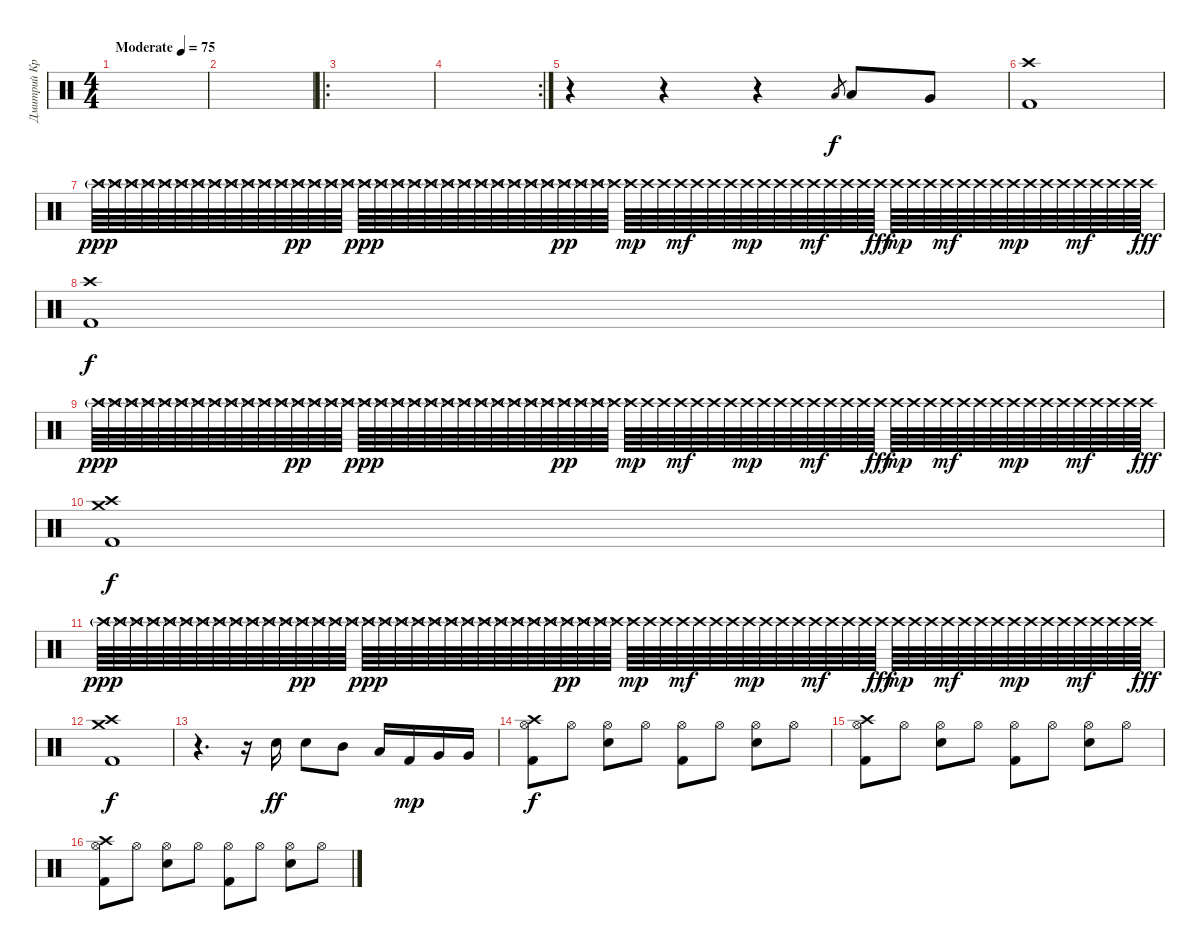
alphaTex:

\track ("Дмитрий Кривенков" "Дмитрий Кр") {instrument percussion}
\staff {score}
\articulation defaults
\ts (4 4)
\tempo (75 "Moderate")
\clef neutral
\ks c
|
|
\ro
|
\rc 2
|
r.4 r.4 r.4 "Low Tom (hit)".8{gr} "Low Tom (hit)".8{dy f} "Very Low Tom (hit)".8 |
("Crash high (hit)" "Kick (hit) 2").1 |
"Crash high (hit)"{g}.64{dy ppp} "Crash high (hit)"{g}.64 "Crash high (hit)"{g}.64 "Crash high (hit)"{g}.64 "Crash high (hit)"{g}.64 "Crash high (hit)"{g}.64 "Crash high (hit)"{g}.64 "Crash high (hit)"{g}.64 "Crash high (hit)"{g}.64 "Crash high (hit)"{g}.64 "Crash high (hit)"{g}.64 "Crash high (hit)"{g}.64 "Crash high (hit)"{g}.64{dy pp} "Crash high (hit)"{g}.64 "Crash high (hit)"{g}.64 "Crash high (hit)"{g}.64 "Crash high (hit)"{g}.64{dy ppp} "Crash high (hit)"{g}.64 "Crash high (hit)"{g}.64 "Crash high (hit)"{g}.64 "Crash high (hit)"{g}.64 "Crash high (hit)"{g}.64 "Crash high (hit)"{g}.64 "Crash high (hit)"{g}.64 "Crash high (hit)"{g}.64 "Crash high (hit)"{g}.64 "Crash high (hit)"{g}.64 "Crash high (hit)"{g}.64 "Crash high (hit)"{g}.64{dy pp} "Crash high (hit)"{g}.64 "Crash high (hit)"{g}.64 "Crash high (hit)"{g}.64 "Crash high (hit)".64{dy mp} "Crash high (hit)".64 "Crash high (hit)".64 "Crash high (hit)".64{dy mf} "Crash high (hit)".64 "Crash high (hit)".64 "Crash high (hit)".64 "Crash high (hit)".64{dy mp} "Crash high (hit)".64 "Crash high (hit)".64 "Crash high (hit)".64 "Crash high (hit)".64{dy mf} "Crash high (hit)".64 "Crash high (hit)".64 "Crash high (hit)".64 "Crash high (hit)".64{dy fff} "Crash high (hit)".64{dy mp} "Crash high (hit)".64 "Crash high (hit)".64 "Crash high (hit)".64{dy mf} "Crash high (hit)".64 "Crash high (hit)".64 "Crash high (hit)".64 "Crash high (hit)".64{dy mp} "Crash high (hit)".64 "Crash high (hit)".64 "Crash high (hit)".64 "Crash high (hit)".64{dy mf} "Crash high (hit)".64 "Crash high (hit)".64 "Crash high (hit)".64 "Crash high (hit)".64{dy fff} |
("Crash high (hit)" "Kick (hit) 2").1{dy f} |
"Crash high (hit)"{g}.64{dy ppp} "Crash high (hit)"{g}.64 "Crash high (hit)"{g}.64 "Crash high (hit)"{g}.64 "Crash high (hit)"{g}.64 "Crash high (hit)"{g}.64 "Crash high (hit)"{g}.64 "Crash high (hit)"{g}.64 "Crash high (hit)"{g}.64 "Crash high (hit)"{g}.64 "Crash high (hit)"{g}.64 "Crash high (hit)"{g}.64 "Crash high (hit)"{g}.64{dy pp} "Crash high (hit)"{g}.64 "Crash high (hit)"{g}.64 "Crash high (hit)"{g}.64 "Crash high (hit)"{g}.64{dy ppp} "Crash high (hit)"{g}.64 "Crash high (hit)"{g}.64 "Crash high (hit)"{g}.64 "Crash high (hit)"{g}.64 "Crash high (hit)"{g}.64 "Crash high (hit)"{g}.64 "Crash high (hit)"{g}.64 "Crash high (hit)"{g}.64 "Crash high (hit)"{g}.64 "Crash high (hit)"{g}.64 "Crash high (hit)"{g}.64 "Crash high (hit)"{g}.64{dy pp} "Crash high (hit)"{g}.64 "Crash high (hit)"{g}.64 "Crash high (hit)"{g}.64 "Crash high (hit)".64{dy mp} "Crash high (hit)".64 "Crash high (hit)".64 "Crash high (hit)".64{dy mf} "Crash high (hit)".64 "Crash high (hit)".64 "Crash high (hit)".64 "Crash high (hit)".64{dy mp} "Crash high (hit)".64 "Crash high (hit)".64 "Crash high (hit)".64 "Crash high (hit)".64{dy mf} "Crash high (hit)".64 "Crash high (hit)".64 "Crash high (hit)".64 "Crash high (hit)".64{dy fff} "Crash high (hit)".64{dy mp} "Crash high (hit)".64 "Crash high (hit)".64 "Crash high (hit)".64{dy mf} "Crash high (hit)".64 "Crash high (hit)".64 "Crash high (hit)".64 "Crash high (hit)".64{dy mp} "Crash high (hit)".64 "Crash high (hit)".64 "Crash high (hit)".64 "Crash high (hit)".64{dy mf} "Crash high (hit)".64 "Crash high (hit)".64 "Crash high (hit)".64 "Crash high (hit)".64{dy fff} |
("Crash medium (hit)" "Crash high (hit)" "Kick (hit) 2").1{dy f} |
"Crash high (hit)"{g}.64{dy ppp} "Crash high (hit)"{g}.64 "Crash high (hit)"{g}.64 "Crash high (hit)"{g}.64 "Crash high (hit)"{g}.64 "Crash high (hit)"{g}.64 "Crash high (hit)"{g}.64 "Crash high (hit)"{g}.64 "Crash high (hit)"{g}.64 "Crash high (hit)"{g}.64 "Crash high (hit)"{g}.64 "Crash high (hit)"{g}.64 "Crash high (hit)"{g}.64{dy pp} "Crash high (hit)"{g}.64 "Crash high (hit)"{g}.64 "Crash high (hit)"{g}.64 "Crash high (hit)"{g}.64{dy ppp} "Crash high (hit)"{g}.64 "Crash high (hit)"{g}.64 "Crash high (hit)"{g}.64 "Crash high (hit)"{g}.64 "Crash high (hit)"{g}.64 "Crash high (hit)"{g}.64 "Crash high (hit)"{g}.64 "Crash high (hit)"{g}.64 "Crash high (hit)"{g}.64 "Crash high (hit)"{g}.64 "Crash high (hit)"{g}.64 "Crash high (hit)"{g}.64{dy pp} "Crash high (hit)"{g}.64 "Crash high (hit)"{g}.64 "Crash high (hit)"{g}.64 "Crash high (hit)".64{dy mp} "Crash high (hit)".64 "Crash high (hit)".64 "Crash high (hit)".64{dy mf} "Crash high (hit)".64 "Crash high (hit)".64 "Crash high (hit)".64 "Crash high (hit)".64{dy mp} "Crash high (hit)".64 "Crash high (hit)".64 "Crash high (hit)".64 "Crash high (hit)".64{dy mf} "Crash high (hit)".64 "Crash high (hit)".64 "Crash high (hit)".64 "Crash high (hit)".64{dy fff} "Crash high (hit)".64{dy mp} "Crash high (hit)".64 "Crash high (hit)".64 "Crash high (hit)".64{dy mf} "Crash high (hit)".64 "Crash high (hit)".64 "Crash high (hit)".64 "Crash high (hit)".64{dy mp} "Crash high (hit)".64 "Crash high (hit)".64 "Crash high (hit)".64 "Crash high (hit)".64{dy mf} "Crash high (hit)".64 "Crash high (hit)".64 "Crash high (hit)".64 "Crash high (hit)".64{dy fff} |
("Crash medium (hit)" "Crash high (hit)" "Kick (hit) 2").1{dy f} |
r.4{d} r.16 "Electric Snare (hit)".16{dy ff} "Electric Snare (hit)".8 "Mid Tom (hit)".8 "Low Tom (hit)".16 "Kick (hit) 2".16{dy mp} "Very Low Tom (hit)".16 "Very Low Tom (hit)".16 |
("Crash high (hit)" "Hi-Hat (open)" "Kick (hit) 2").8{dy f} "Hi-Hat (open)".8 ("Hi-Hat (open)" "Electric Snare (hit)").8 "Hi-Hat (open)".8 ("Hi-Hat (open)" "Kick (hit) 2").8 "Hi-Hat (open)".8 ("Hi-Hat (open)" "Electric Snare (hit)").8 "Hi-Hat (open)".8 |
("Crash high (hit)" "Hi-Hat (open)" "Kick (hit) 2").8 "Hi-Hat (open)".8 ("Hi-Hat (open)" "Electric Snare (hit)").8 "Hi-Hat (open)".8 ("Hi-Hat (open)" "Kick (hit) 2").8 "Hi-Hat (open)".8 ("Hi-Hat (open)" "Electric Snare (hit)").8 "Hi-Hat (open)".8 |
("Crash high (hit)" "Hi-Hat (open)" "Kick (hit) 2").8 "Hi-Hat (open)".8 ("Hi-Hat (open)" "Electric Snare (hit)").8 "Hi-Hat (open)".8 ("Hi-Hat (open)" "Kick (hit) 2").8 "Hi-Hat (open)".8 ("Hi-Hat (open)" "Electric Snare (hit)").8 "Hi-Hat (open)".8
